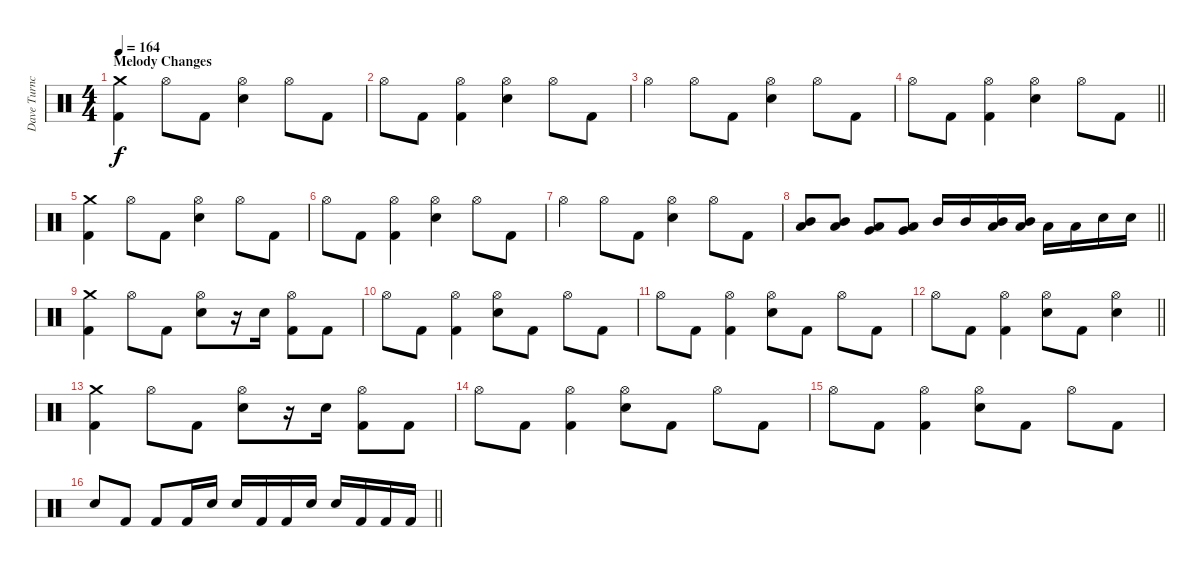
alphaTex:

\track ("Dave Turncrantz" "Dave Turnc") {instrument percussion}
\staff {score}
\articulation defaults
\ts (4 4)
\section ("" "Melody Changes")
\tempo 164
\clef neutral
\ks c
("Crash medium (hit)" "Kick (hit) 2").4{dy f} "Hi-Hat (open)".8 "Kick (hit) 2".8 ("Hi-Hat (open)" "Electric Snare (hit)").4 "Hi-Hat (open)".8 "Kick (hit) 2".8 |
"Hi-Hat (open)".8 "Kick (hit) 2".8 ("Hi-Hat (open)" "Kick (hit) 2").4 ("Hi-Hat (open)" "Electric Snare (hit)").4 "Hi-Hat (open)".8 "Kick (hit) 2".8 |
"Hi-Hat (open)".4 "Hi-Hat (open)".8 "Kick (hit) 2".8 ("Hi-Hat (open)" "Electric Snare (hit)").4 "Hi-Hat (open)".8 "Kick (hit) 2".8 |
\barLineRight lightlight "Hi-Hat (open)".8 "Kick (hit) 2".8
("Hi-Hat (open)" "Kick (hit) 2").4 ("Hi-Hat (open)" "Electric Snare (hit)").4 "Hi-Hat (open)".8 "Kick (hit) 2".8 |
\section ("" "")
("Crash medium (hit)" "Kick (hit) 2").4 "Hi-Hat (open)".8 "Kick (hit) 2".8 ("Hi-Hat (open)" "Electric Snare (hit)").4 "Hi-Hat (open)".8 "Kick (hit) 2".8 |
"Hi-Hat (open)".8 "Kick (hit) 2".8 ("Hi-Hat (open)" "Kick (hit) 2").4 ("Hi-Hat (open)" "Electric Snare (hit)").4 "Hi-Hat (open)".8 "Kick (hit) 2".8 |
"Hi-Hat (open)".4 "Hi-Hat (open)".8 "Kick (hit) 2".8 ("Hi-Hat (open)" "Electric Snare (hit)").4 "Hi-Hat (open)".8 "Kick (hit) 2".8 |
\barLineRight lightlight
("Mid Tom (hit)" "Low Tom (hit)").8 ("Mid Tom (hit)" "Low Tom (hit)").8 ("Low Tom (hit)" "Very Low Tom (hit)").8 ("Low Tom (hit)" "Very Low Tom (hit)").8 "Mid Tom (hit)".16 "Mid Tom (hit)".16 ("Mid Tom (hit)" "Low Tom (hit)").16 ("Mid Tom (hit)" "Low Tom (hit)").16 "Low Tom (hit)".16 "Low Tom (hit)".16 "Electric Snare (hit)".16 "Electric Snare (hit)".16 |
\section ("" "")
("Crash medium (hit)" "Kick (hit) 2").4 "Hi-Hat (open)".8 "Kick (hit) 2".8 ("Hi-Hat (open)" "Electric Snare (hit)").8 r.16 "Electric Snare (hit)".16 ("Hi-Hat (open)" "Kick (hit) 2").8 "Kick (hit) 2".8 |
"Hi-Hat (open)".8 "Kick (hit) 2".8 ("Hi-Hat (open)" "Kick (hit) 2").4 ("Hi-Hat (open)" "Electric Snare (hit)").8 "Kick (hit) 2".8 "Hi-Hat (open)".8 "Kick (hit) 2".8 |
"Hi-Hat (open)".8 "Kick (hit) 2".8 ("Hi-Hat (open)" "Kick (hit) 2").4 ("Hi-Hat (open)" "Electric Snare (hit)").8 "Kick (hit) 2".8 "Hi-Hat (open)".8 "Kick (hit) 2".8 |
\barLineRight lightlight "Hi-Hat (open)".8 "Kick (hit) 2".8
("Hi-Hat (open)" "Kick (hit) 2").4 ("Hi-Hat (open)" "Electric Snare (hit)").8 "Kick (hit) 2".8 ("Hi-Hat (open)" "Electric Snare (hit)").4 |
\section ("" "")
("Crash medium (hit)" "Kick (hit) 2").4 "Hi-Hat (open)".8 "Kick (hit) 2".8 ("Hi-Hat (open)" "Electric Snare (hit)").8 r.16 "Electric Snare (hit)".16 ("Hi-Hat (open)" "Kick (hit) 2").8 "Kick (hit) 2".8 |
"Hi-Hat (open)".8 "Kick (hit) 2".8 ("Hi-Hat (open)" "Kick (hit) 2").4 ("Hi-Hat (open)" "Electric Snare (hit)").8 "Kick (hit) 2".8 "Hi-Hat (open)".8 "Kick (hit) 2".8 |
"Hi-Hat (open)".8 "Kick (hit) 2".8 ("Hi-Hat (open)" "Kick (hit) 2").4 ("Hi-Hat (open)" "Electric Snare (hit)").8 "Kick (hit) 2".8 "Hi-Hat (open)".8 "Kick (hit) 2".8 |
\barLineRight lightlight "Electric Snare (hit)".8 "Kick (hit) 2".8 "Kick (hit) 2".8 "Kick (hit) 2".16 "Electric Snare (hit)".16 "Electric Snare (hit)".16 "Kick (hit) 2".16 "Kick (hit) 2".16 "Electric Snare (hit)".16 "Electric Snare (hit)".16 "Kick (hit) 2".16 "Kick (hit) 2".16 "Kick (hit) 2".16
